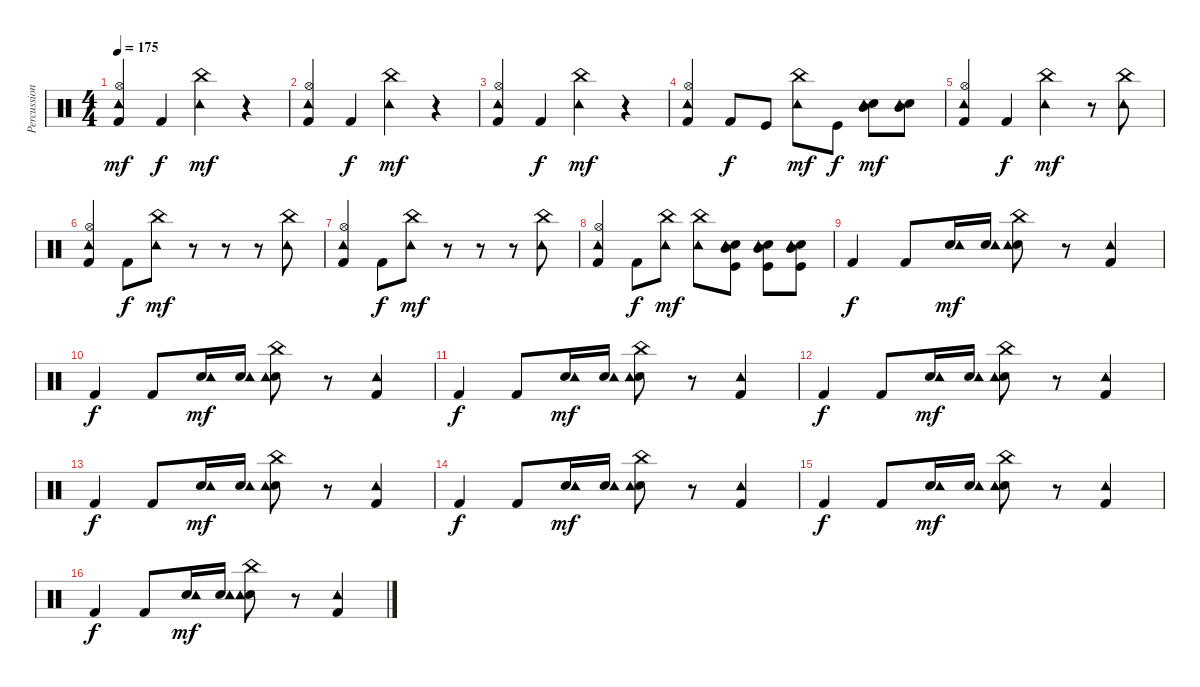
\track ("Percussion" "Percussion") {instrument percussion}
\staff {score}
\articulation defaults
\ts (4 4)
\tempo 175
\clef neutral
\ks c
("Kick (hit) 2" "Hi-Hat (open)" "Tambourine (hit)").4{dy mf} "Kick (hit) 2".4{dy f} ("China (hit)" "Tambourine (hit)").4{dy mf} r.4 |
("Kick (hit) 2" "Hi-Hat (open)" "Tambourine (hit)").4 "Kick (hit) 2".4{dy f} ("China (hit)" "Tambourine (hit)").4{dy mf} r.4 |
("Kick (hit) 2" "Hi-Hat (open)" "Tambourine (hit)").4 "Kick (hit) 2".4{dy f} ("China (hit)" "Tambourine (hit)").4{dy mf} r.4 |
("Kick (hit) 2" "Hi-Hat (open)" "Tambourine (hit)").4 "Kick (hit) 2".8{dy f} "Kick (hit)".8 ("China (hit)" "Tambourine (hit)").8{dy mf} "Kick (hit)".8{dy f} ("Electric Snare (hit)" "Mid Tom (hit)" "Tambourine (hit)").8{dy mf} ("Electric Snare (hit)" "Mid Tom (hit)" "Tambourine (hit)").8 |
("Kick (hit) 2" "Hi-Hat (open)" "Tambourine (hit)").4 "Kick (hit) 2".4{dy f} ("China (hit)" "Tambourine (hit)").4{dy mf} r.8 ("China (hit)" "Tambourine (hit)").8 |
("Kick (hit) 2" "Hi-Hat (open)" "Tambourine (hit)").4 "Kick (hit) 2".8{dy f} ("China (hit)" "Tambourine (hit)").8{dy mf} r.8 r.8 r.8 ("China (hit)" "Tambourine (hit)").8 |
("Kick (hit) 2" "Hi-Hat (open)" "Tambourine (hit)").4 "Kick (hit) 2".8{dy f} ("China (hit)" "Tambourine (hit)").8{dy mf} r.8 r.8 r.8 ("China (hit)" "Tambourine (hit)").8 |
("Kick (hit) 2" "Hi-Hat (open)" "Tambourine (hit)").4 "Kick (hit) 2".8{dy f} ("China (hit)" "Tambourine (hit)").8{dy mf} ("China (hit)" "Tambourine (hit)").8 ("Kick (hit)" "Electric Snare (hit)" "Mid Tom (hit)" "Tambourine (hit)").8 ("Kick (hit)" "Electric Snare (hit)" "Mid Tom (hit)" "Tambourine (hit)").8 ("Kick (hit)" "Electric Snare (hit)" "Mid Tom (hit)" "Tambourine (hit)").8 |
"Kick (hit) 2".4{dy f} "Kick (hit) 2".8 ("Electric Snare (hit)" "Tambourine (hit)").16{dy mf} ("Electric Snare (hit)" "Tambourine (hit)").16 ("Electric Snare (hit)" "China (hit)" "Tambourine (hit)").8 r.8 ("Kick (hit) 2" "Tambourine (hit)").4 |
"Kick (hit) 2".4{dy f} "Kick (hit) 2".8 ("Electric Snare (hit)" "Tambourine (hit)").16{dy mf} ("Electric Snare (hit)" "Tambourine (hit)").16 ("Electric Snare (hit)" "China (hit)" "Tambourine (hit)").8 r.8 ("Kick (hit) 2" "Tambourine (hit)").4 |
"Kick (hit) 2".4{dy f} "Kick (hit) 2".8 ("Electric Snare (hit)" "Tambourine (hit)").16{dy mf} ("Electric Snare (hit)" "Tambourine (hit)").16 ("Electric Snare (hit)" "China (hit)" "Tambourine (hit)").8 r.8 ("Kick (hit) 2" "Tambourine (hit)").4 |
"Kick (hit) 2".4{dy f} "Kick (hit) 2".8 ("Electric Snare (hit)" "Tambourine (hit)").16{dy mf} ("Electric Snare (hit)" "Tambourine (hit)").16 ("Electric Snare (hit)" "China (hit)" "Tambourine (hit)").8 r.8 ("Kick (hit) 2" "Tambourine (hit)").4 |
"Kick (hit) 2".4{dy f} "Kick (hit) 2".8 ("Electric Snare (hit)" "Tambourine (hit)").16{dy mf} ("Electric Snare (hit)" "Tambourine (hit)").16 ("Electric Snare (hit)" "China (hit)" "Tambourine (hit)").8 r.8 ("Kick (hit) 2" "Tambourine (hit)").4 |
"Kick (hit) 2".4{dy f} "Kick (hit) 2".8 ("Electric Snare (hit)" "Tambourine (hit)").16{dy mf} ("Electric Snare (hit)" "Tambourine (hit)").16 ("Electric Snare (hit)" "China (hit)" "Tambourine (hit)").8 r.8 ("Kick (hit) 2" "Tambourine (hit)").4 |
"Kick (hit) 2".4{dy f} "Kick (hit) 2".8 ("Electric Snare (hit)" "Tambourine (hit)").16{dy mf} ("Electric Snare (hit)" "Tambourine (hit)").16 ("Electric Snare (hit)" "China (hit)" "Tambourine (hit)").8 r.8 ("Kick (hit) 2" "Tambourine (hit)").4 |
"Kick (hit) 2".4{dy f} "Kick (hit) 2".8 ("Electric Snare (hit)" "Tambourine (hit)").16{dy mf} ("Electric Snare (hit)" "Tambourine (hit)").16 ("Electric Snare (hit)" "China (hit)" "Tambourine (hit)").8 r.8 ("Kick (hit) 2" "Tambourine (hit)").4
